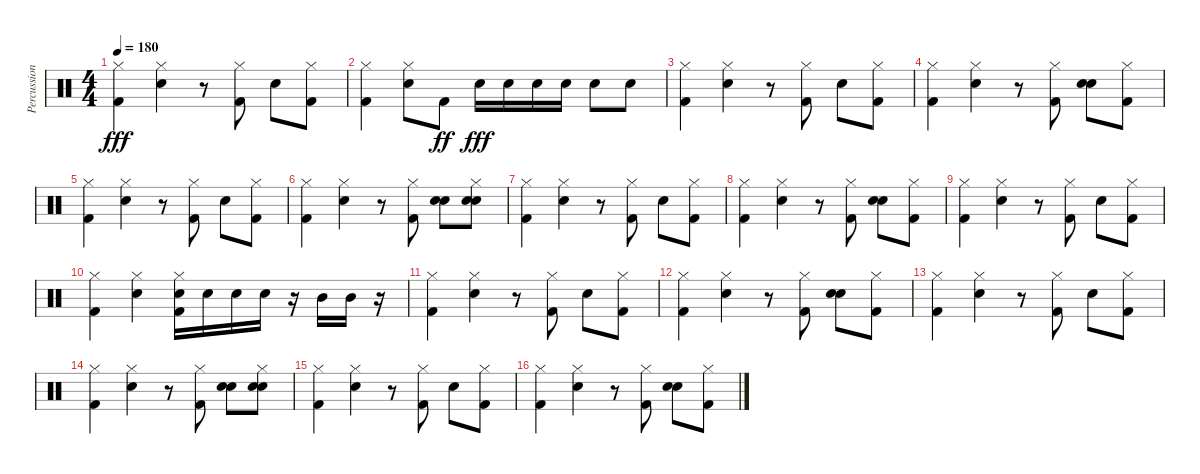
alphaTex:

\track ("Percussion" "Percussion") {instrument percussion}
\staff {score}
\articulation defaults
\ts (4 4)
\tempo 180
\clef neutral
\ks c
("Hi-Hat (closed)" "Kick (hit) 2").4{dy fff} ("Hi-Hat (closed)" "Snare (hit) 2").4 r.8 ("Hi-Hat (closed)" "Kick (hit) 2").8 "Snare (hit) 2".8 ("Hi-Hat (closed)" "Kick (hit) 2").8 |
("Hi-Hat (closed)" "Kick (hit) 2").4 ("Hi-Hat (closed)" "Snare (hit) 2").8 "Kick (hit) 2".8{dy ff} "Snare (hit) 2".16{dy fff} "Snare (hit) 2".16 "Snare (hit) 2".16 "Snare (hit) 2".16 "Snare (hit) 2".8 "Snare (hit) 2".8 |
("Hi-Hat (closed)" "Kick (hit) 2").4 ("Hi-Hat (closed)" "Snare (hit) 2").4 r.8 ("Hi-Hat (closed)" "Kick (hit) 2").8 "Snare (hit) 2".8 ("Hi-Hat (closed)" "Kick (hit) 2").8 |
("Hi-Hat (closed)" "Kick (hit) 2").4 ("Hi-Hat (closed)" "Snare (hit) 2").4 r.8 ("Hi-Hat (closed)" "Kick (hit) 2").8 ("Snare (hit) 2" "Snare (hit) 2").8 ("Hi-Hat (closed)" "Kick (hit) 2").8 |
("Hi-Hat (closed)" "Kick (hit) 2").4 ("Hi-Hat (closed)" "Snare (hit) 2").4 r.8 ("Hi-Hat (closed)" "Kick (hit) 2").8 "Snare (hit) 2".8 ("Hi-Hat (closed)" "Kick (hit) 2").8 |
("Hi-Hat (closed)" "Kick (hit) 2").4 ("Hi-Hat (closed)" "Snare (hit) 2").4 r.8 ("Hi-Hat (closed)" "Kick (hit) 2").8 ("Snare (hit) 2" "Snare (hit) 2").8 ("Hi-Hat (closed)" "Snare (hit) 2" "Snare (hit) 2").8 |
("Hi-Hat (closed)" "Kick (hit) 2").4 ("Hi-Hat (closed)" "Snare (hit) 2").4 r.8 ("Hi-Hat (closed)" "Kick (hit) 2").8 "Snare (hit) 2".8 ("Hi-Hat (closed)" "Kick (hit) 2").8 |
("Hi-Hat (closed)" "Kick (hit) 2").4 ("Hi-Hat (closed)" "Snare (hit) 2").4 r.8 ("Hi-Hat (closed)" "Kick (hit) 2").8 ("Snare (hit) 2" "Snare (hit) 2").8 ("Hi-Hat (closed)" "Kick (hit) 2").8 |
("Hi-Hat (closed)" "Kick (hit) 2").4 ("Hi-Hat (closed)" "Snare (hit) 2").4 r.8 ("Hi-Hat (closed)" "Kick (hit) 2").8 "Snare (hit) 2".8 ("Hi-Hat (closed)" "Kick (hit) 2").8 |
("Hi-Hat (closed)" "Kick (hit) 2").4 ("Hi-Hat (closed)" "Snare (hit) 2").4 ("Hi-Hat (closed)" "Snare (hit) 2" "Kick (hit) 2").16 "Snare (hit) 2".16 "Snare (hit) 2".16 "Snare (hit) 2".16 r.16 "Mid Tom (hit)".16 "Mid Tom (hit)".16 r.16 |
("Hi-Hat (closed)" "Kick (hit) 2").4 ("Hi-Hat (closed)" "Snare (hit) 2").4 r.8 ("Hi-Hat (closed)" "Kick (hit) 2").8 "Snare (hit) 2".8 ("Hi-Hat (closed)" "Kick (hit) 2").8 |
("Hi-Hat (closed)" "Kick (hit) 2").4 ("Hi-Hat (closed)" "Snare (hit) 2").4 r.8 ("Hi-Hat (closed)" "Kick (hit) 2").8 ("Snare (hit) 2" "Snare (hit) 2").8 ("Hi-Hat (closed)" "Kick (hit) 2").8 |
("Hi-Hat (closed)" "Kick (hit) 2").4 ("Hi-Hat (closed)" "Snare (hit) 2").4 r.8 ("Hi-Hat (closed)" "Kick (hit) 2").8 "Snare (hit) 2".8 ("Hi-Hat (closed)" "Kick (hit) 2").8 |
("Hi-Hat (closed)" "Kick (hit) 2").4 ("Hi-Hat (closed)" "Snare (hit) 2").4 r.8 ("Hi-Hat (closed)" "Kick (hit) 2").8 ("Snare (hit) 2" "Snare (hit) 2").8 ("Hi-Hat (closed)" "Snare (hit) 2" "Snare (hit) 2").8 |
("Hi-Hat (closed)" "Kick (hit) 2").4 ("Hi-Hat (closed)" "Snare (hit) 2").4 r.8 ("Hi-Hat (closed)" "Kick (hit) 2").8 "Snare (hit) 2".8 ("Hi-Hat (closed)" "Kick (hit) 2").8 |
("Hi-Hat (closed)" "Kick (hit) 2").4 ("Hi-Hat (closed)" "Snare (hit) 2").4 r.8 ("Hi-Hat (closed)" "Kick (hit) 2").8 ("Snare (hit) 2" "Snare (hit) 2").8 ("Hi-Hat (closed)" "Kick (hit) 2").8
